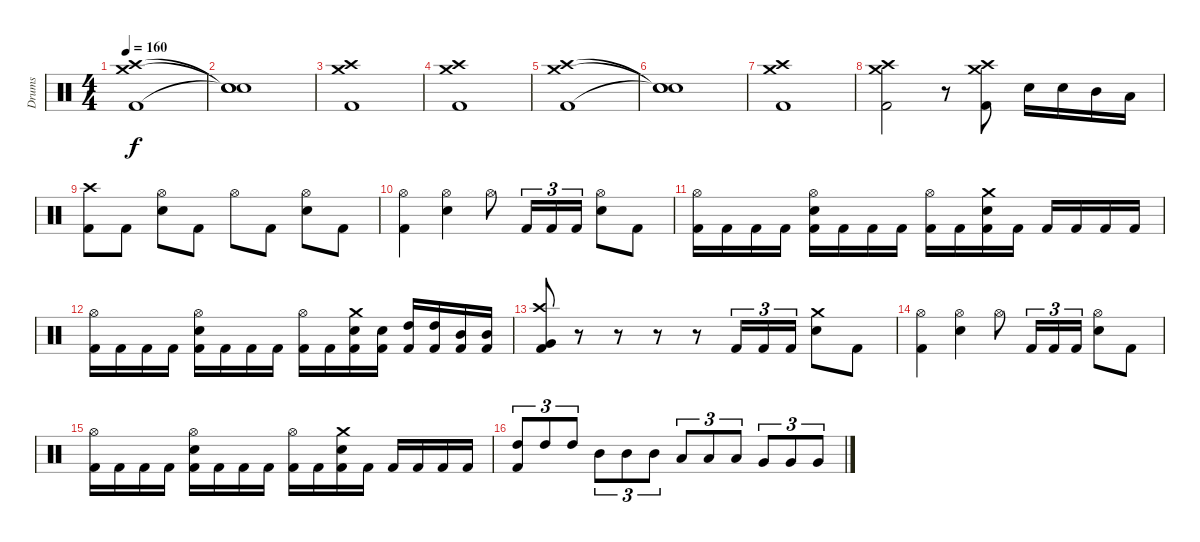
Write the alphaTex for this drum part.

\track ("Drums" "Drums") {instrument percussion}
\staff {score}
\articulation defaults
\ts (4 4)
\tempo 160
\clef neutral
\ks c
("Kick (hit) 2" "Crash medium (hit)" "Crash high (hit)").1{dy f} |
("Snare (hit)"{t} "Snare (hit)"{t} "Snare (hit)"{t}).1 |
("Kick (hit) 2" "Crash medium (hit)" "Crash high (hit)").1 |
("Kick (hit) 2" "Crash medium (hit)" "Crash high (hit)").1 |
("Kick (hit) 2" "Crash medium (hit)" "Crash high (hit)").1 |
("Snare (hit)"{t} "Snare (hit)"{t} "Snare (hit)"{t}).1 |
("Kick (hit) 2" "Crash medium (hit)" "Crash high (hit)").1 |
("Kick (hit) 2" "Crash medium (hit)" "Crash high (hit)").2 r.8 ("Kick (hit) 2" "Crash medium (hit)" "Crash high (hit)").8 "Electric Snare (hit)".16 "Electric Snare (hit)".16 "Mid Tom (hit)".16 "Low Tom (hit)".16 |
("Kick (hit) 2" "Crash high (hit)").8 "Kick (hit) 2".8 ("Electric Snare (hit)" "Hi-Hat (open)").8 "Kick (hit) 2".8 "Hi-Hat (open)".8 "Kick (hit) 2".8 ("Electric Snare (hit)" "Hi-Hat (open)").8 "Kick (hit) 2".8 |
("Kick (hit) 2" "Hi-Hat (open)").4 ("Electric Snare (hit)" "Hi-Hat (open)").4 "Hi-Hat (open)".8 "Kick (hit) 2".16{tu (3 2)} "Kick (hit) 2".16{tu (3 2)} "Kick (hit) 2".16{tu (3 2)} ("Electric Snare (hit)" "Hi-Hat (open)").8 "Kick (hit) 2".8 |
("Kick (hit) 2" "Hi-Hat (open)").16 "Kick (hit) 2".16 "Kick (hit) 2".16 "Kick (hit) 2".16 ("Kick (hit) 2" "Electric Snare (hit)" "Hi-Hat (open)").16 "Kick (hit) 2".16 "Kick (hit) 2".16 "Kick (hit) 2".16 ("Kick (hit) 2" "Hi-Hat (open)").16 "Kick (hit) 2".16 ("Kick (hit) 2" "Electric Snare (hit)" "Crash medium (hit)").16 "Kick (hit) 2".16 "Kick (hit) 2".16 "Kick (hit) 2".16 "Kick (hit) 2".16 "Kick (hit) 2".16 |
("Kick (hit) 2" "Hi-Hat (open)").16 "Kick (hit) 2".16 "Kick (hit) 2".16 "Kick (hit) 2".16 ("Kick (hit) 2" "Electric Snare (hit)" "Hi-Hat (open)").16 "Kick (hit) 2".16 "Kick (hit) 2".16 "Kick (hit) 2".16 ("Kick (hit) 2" "Hi-Hat (open)").16 "Kick (hit) 2".16 ("Kick (hit) 2" "Electric Snare (hit)" "Crash medium (hit)").16 ("Kick (hit) 2" "Electric Snare (hit)").16 ("Kick (hit) 2" "High Tom (hit)").16 ("Kick (hit) 2" "High Tom (hit)").16 ("Kick (hit) 2" "Mid Tom (hit)").16 ("Kick (hit) 2" "Mid Tom (hit)").16 |
("Kick (hit) 2" "Very Low Tom (hit)" "Crash high (hit)").8 r.8 r.8 r.8 r.8 "Kick (hit) 2".16{tu (3 2)} "Kick (hit) 2".16{tu (3 2)} "Kick (hit) 2".16{tu (3 2)} ("Electric Snare (hit)" "Crash medium (hit)").8 "Kick (hit) 2".8 |
("Kick (hit) 2" "Hi-Hat (open)").4 ("Electric Snare (hit)" "Hi-Hat (open)").4 "Hi-Hat (open)".8 "Kick (hit) 2".16{tu (3 2)} "Kick (hit) 2".16{tu (3 2)} "Kick (hit) 2".16{tu (3 2)} ("Electric Snare (hit)" "Hi-Hat (open)").8 "Kick (hit) 2".8 |
("Kick (hit) 2" "Hi-Hat (open)").16 "Kick (hit) 2".16 "Kick (hit) 2".16 "Kick (hit) 2".16 ("Kick (hit) 2" "Electric Snare (hit)" "Hi-Hat (open)").16 "Kick (hit) 2".16 "Kick (hit) 2".16 "Kick (hit) 2".16 ("Kick (hit) 2" "Hi-Hat (open)").16 "Kick (hit) 2".16 ("Kick (hit) 2" "Electric Snare (hit)" "Crash medium (hit)").16 "Kick (hit) 2".16 "Kick (hit) 2".16 "Kick (hit) 2".16 "Kick (hit) 2".16 "Kick (hit) 2".16 |
("Kick (hit) 2" "High Tom (hit)").8{tu (3 2)} "High Tom (hit)".8{tu (3 2)} "High Tom (hit)".8{tu (3 2)} "Mid Tom (hit)".8{tu (3 2)} "Mid Tom (hit)".8{tu (3 2)} "Mid Tom (hit)".8{tu (3 2)} "Low Tom (hit)".8{tu (3 2)} "Low Tom (hit)".8{tu (3 2)} "Low Tom (hit)".8{tu (3 2)} "Very Low Tom (hit)".8{tu (3 2)} "Very Low Tom (hit)".8{tu (3 2)} "Very Low Tom (hit)".8{tu (3 2)}
